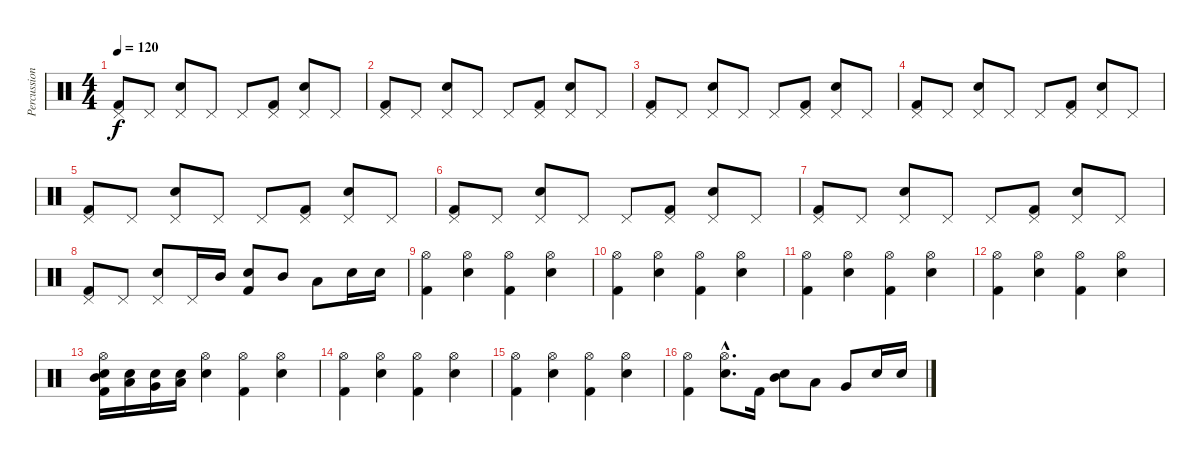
\track ("Percussion" "Percussion") {instrument percussion}
\staff {score}
\articulation defaults
\ts (4 4)
\tempo 120
\clef neutral
\ks c
("Kick (hit) 2" "Pedal Hi-Hat (hit)").8{dy f} "Pedal Hi-Hat (hit)".8 ("Electric Snare (hit)" "Pedal Hi-Hat (hit)").8 "Pedal Hi-Hat (hit)".8 "Pedal Hi-Hat (hit)".8 ("Kick (hit) 2" "Pedal Hi-Hat (hit)").8 ("Electric Snare (hit)" "Pedal Hi-Hat (hit)").8 "Pedal Hi-Hat (hit)".8 |
("Kick (hit) 2" "Pedal Hi-Hat (hit)").8 "Pedal Hi-Hat (hit)".8 ("Electric Snare (hit)" "Pedal Hi-Hat (hit)").8 "Pedal Hi-Hat (hit)".8 "Pedal Hi-Hat (hit)".8 ("Kick (hit) 2" "Pedal Hi-Hat (hit)").8 ("Electric Snare (hit)" "Pedal Hi-Hat (hit)").8 "Pedal Hi-Hat (hit)".8 |
("Kick (hit) 2" "Pedal Hi-Hat (hit)").8 "Pedal Hi-Hat (hit)".8 ("Electric Snare (hit)" "Pedal Hi-Hat (hit)").8 "Pedal Hi-Hat (hit)".8 "Pedal Hi-Hat (hit)".8 ("Kick (hit) 2" "Pedal Hi-Hat (hit)").8 ("Electric Snare (hit)" "Pedal Hi-Hat (hit)").8 "Pedal Hi-Hat (hit)".8 |
("Kick (hit) 2" "Pedal Hi-Hat (hit)").8 "Pedal Hi-Hat (hit)".8 ("Electric Snare (hit)" "Pedal Hi-Hat (hit)").8 "Pedal Hi-Hat (hit)".8 "Pedal Hi-Hat (hit)".8 ("Kick (hit) 2" "Pedal Hi-Hat (hit)").8 ("Electric Snare (hit)" "Pedal Hi-Hat (hit)").8 "Pedal Hi-Hat (hit)".8 |
("Kick (hit) 2" "Pedal Hi-Hat (hit)").8 "Pedal Hi-Hat (hit)".8 ("Electric Snare (hit)" "Pedal Hi-Hat (hit)").8 "Pedal Hi-Hat (hit)".8 "Pedal Hi-Hat (hit)".8 ("Kick (hit) 2" "Pedal Hi-Hat (hit)").8 ("Electric Snare (hit)" "Pedal Hi-Hat (hit)").8 "Pedal Hi-Hat (hit)".8 |
("Kick (hit) 2" "Pedal Hi-Hat (hit)").8 "Pedal Hi-Hat (hit)".8 ("Electric Snare (hit)" "Pedal Hi-Hat (hit)").8 "Pedal Hi-Hat (hit)".8 "Pedal Hi-Hat (hit)".8 ("Kick (hit) 2" "Pedal Hi-Hat (hit)").8 ("Electric Snare (hit)" "Pedal Hi-Hat (hit)").8 "Pedal Hi-Hat (hit)".8 |
("Kick (hit) 2" "Pedal Hi-Hat (hit)").8 "Pedal Hi-Hat (hit)".8 ("Electric Snare (hit)" "Pedal Hi-Hat (hit)").8 "Pedal Hi-Hat (hit)".8 "Pedal Hi-Hat (hit)".8 ("Kick (hit) 2" "Pedal Hi-Hat (hit)").8 ("Electric Snare (hit)" "Pedal Hi-Hat (hit)").8 "Pedal Hi-Hat (hit)".8 |
("Kick (hit) 2" "Pedal Hi-Hat (hit)").8 "Pedal Hi-Hat (hit)".8 ("Electric Snare (hit)" "Pedal Hi-Hat (hit)").8 "Pedal Hi-Hat (hit)".16 "Mid Tom (hit)".16 ("Kick (hit) 2" "Electric Snare (hit)").8 "Mid Tom (hit)".8 "Low Tom (hit)".8 "Electric Snare (hit)".16 "Electric Snare (hit)".16 |
("Kick (hit) 2" "Hi-Hat (open)").4 ("Electric Snare (hit)" "Hi-Hat (open)").4 ("Kick (hit) 2" "Hi-Hat (open)").4 ("Electric Snare (hit)" "Hi-Hat (open)").4 |
("Kick (hit) 2" "Hi-Hat (open)").4 ("Electric Snare (hit)" "Hi-Hat (open)").4 ("Kick (hit) 2" "Hi-Hat (open)").4 ("Electric Snare (hit)" "Hi-Hat (open)").4 |
("Kick (hit) 2" "Hi-Hat (open)").4 ("Electric Snare (hit)" "Hi-Hat (open)").4 ("Kick (hit) 2" "Hi-Hat (open)").4 ("Electric Snare (hit)" "Hi-Hat (open)").4 |
("Kick (hit) 2" "Hi-Hat (open)").4 ("Electric Snare (hit)" "Hi-Hat (open)").4 ("Kick (hit) 2" "Hi-Hat (open)").4 ("Electric Snare (hit)" "Hi-Hat (open)").4 |
("Kick (hit) 2" "Hi-Hat (open)" "Mid Tom (hit)" "Electric Snare (hit)").16 ("Low Tom (hit)" "Electric Snare (hit)").16 ("Very Low Tom (hit)" "Electric Snare (hit)").16 ("Low Floor Tom (hit)" "Electric Snare (hit)").16 ("Electric Snare (hit)" "Hi-Hat (open)").4 ("Kick (hit) 2" "Hi-Hat (open)").4 ("Electric Snare (hit)" "Hi-Hat (open)").4 |
("Kick (hit) 2" "Hi-Hat (open)").4 ("Electric Snare (hit)" "Hi-Hat (open)").4 ("Kick (hit) 2" "Hi-Hat (open)").4 ("Electric Snare (hit)" "Hi-Hat (open)").4 |
("Kick (hit) 2" "Hi-Hat (open)").4 ("Electric Snare (hit)" "Hi-Hat (open)").4 ("Kick (hit) 2" "Hi-Hat (open)").4 ("Electric Snare (hit)" "Hi-Hat (open)").4 |
("Kick (hit) 2" "Hi-Hat (open)").4 ("Electric Snare (hit)"{hac} "Hi-Hat (open)"{hac}).8{d} "Kick (hit) 2".16 ("Mid Tom (hit)" "Electric Snare (hit)").8 "Low Tom (hit)".8 "Very Low Tom (hit)".8 "Electric Snare (hit)".16 "Electric Snare (hit)".16
